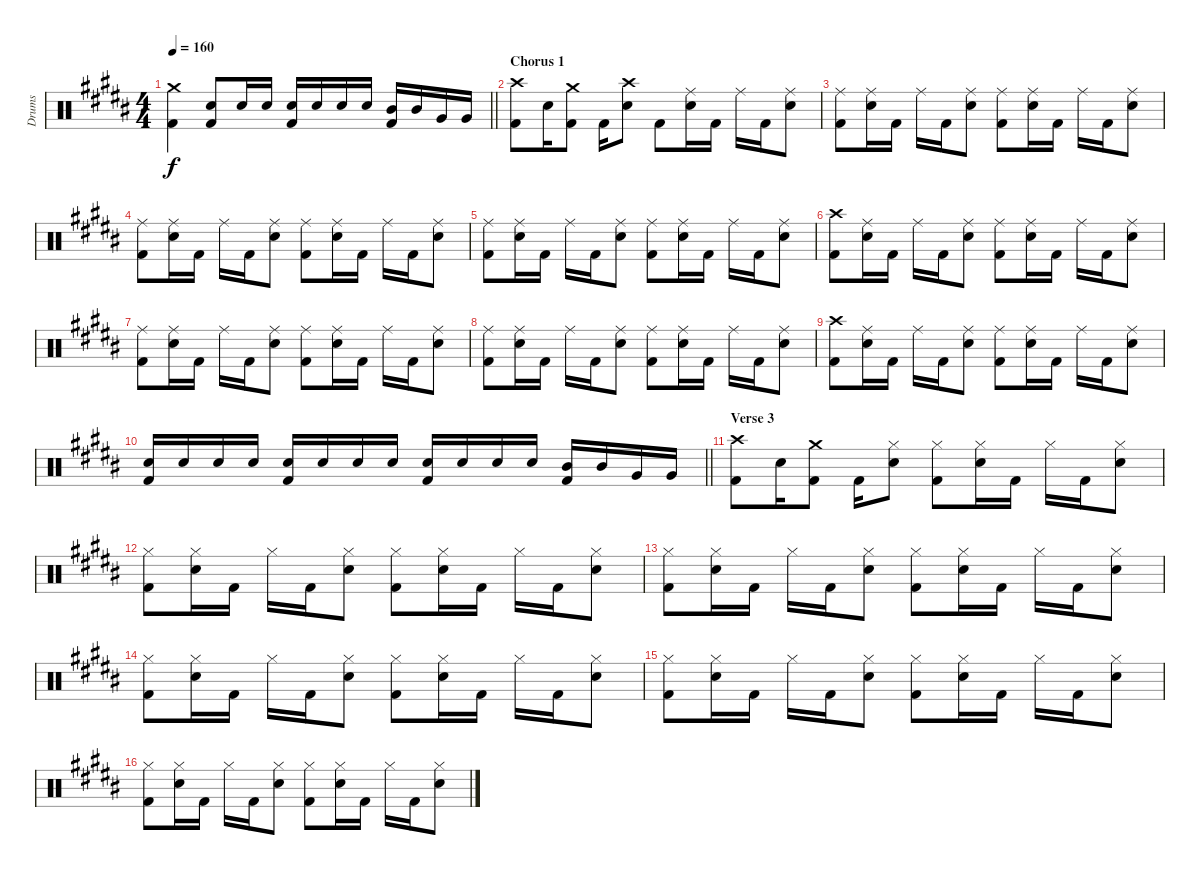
\track ("Drums" "Drums") {instrument percussion}
\staff {score}
\articulation defaults
\ts (4 4)
\tempo 160
\clef neutral
\barLineRight lightlight
\ks g#minor
("Crash medium (hit)" "Kick (hit) 2").4{dy f} ("Electric Snare (hit)" "Kick (hit) 2").8 "Electric Snare (hit)".16 "Electric Snare (hit)".16 ("Electric Snare (hit)" "Kick (hit) 2").16 "Electric Snare (hit)".16 "Electric Snare (hit)".16 "Electric Snare (hit)".16 ("Mid Tom (hit)" "Kick (hit) 2").16 "Mid Tom (hit)".16 "Very Low Tom (hit)".16 "Very Low Tom (hit)".16 |
\section ("" "Chorus 1")
("Crash high (hit)" "Kick (hit) 2").8 "Electric Snare (hit)".16 ("Crash medium (hit)" "Kick (hit) 2").8 "Kick (hit) 2".16 ("Crash high (hit)" "Electric Snare (hit)").8 "Kick (hit) 2".8 ("Ride (middle)" "Electric Snare (hit)").16 "Kick (hit) 2".16 "Ride (middle)".16 "Kick (hit) 2".16 ("Ride (middle)" "Electric Snare (hit)").8 |
("Ride (middle)" "Kick (hit) 2").8 ("Ride (middle)" "Electric Snare (hit)").16 "Kick (hit) 2".16 "Ride (middle)".16 "Kick (hit) 2".16 ("Ride (middle)" "Electric Snare (hit)").8 ("Ride (middle)" "Kick (hit) 2").8 ("Ride (middle)" "Electric Snare (hit)").16 "Kick (hit) 2".16 "Ride (middle)".16 "Kick (hit) 2".16 ("Ride (middle)" "Electric Snare (hit)").8 |
("Ride (middle)" "Kick (hit) 2").8 ("Ride (middle)" "Electric Snare (hit)").16 "Kick (hit) 2".16 "Ride (middle)".16 "Kick (hit) 2".16 ("Ride (middle)" "Electric Snare (hit)").8 ("Ride (middle)" "Kick (hit) 2").8 ("Ride (middle)" "Electric Snare (hit)").16 "Kick (hit) 2".16 "Ride (middle)".16 "Kick (hit) 2".16 ("Ride (middle)" "Electric Snare (hit)").8 |
("Ride (middle)" "Kick (hit) 2").8 ("Ride (middle)" "Electric Snare (hit)").16 "Kick (hit) 2".16 "Ride (middle)".16 "Kick (hit) 2".16 ("Ride (middle)" "Electric Snare (hit)").8 ("Ride (middle)" "Kick (hit) 2").8 ("Ride (middle)" "Electric Snare (hit)").16 "Kick (hit) 2".16 "Ride (middle)".16 "Kick (hit) 2".16 ("Ride (middle)" "Electric Snare (hit)").8 |
("Crash high (hit)" "Kick (hit) 2").8 ("Ride (middle)" "Electric Snare (hit)").16 "Kick (hit) 2".16 "Ride (middle)".16 "Kick (hit) 2".16 ("Ride (middle)" "Electric Snare (hit)").8 ("Ride (middle)" "Kick (hit) 2").8 ("Ride (middle)" "Electric Snare (hit)").16 "Kick (hit) 2".16 "Ride (middle)".16 "Kick (hit) 2".16 ("Ride (middle)" "Electric Snare (hit)").8 |
("Ride (middle)" "Kick (hit) 2").8 ("Ride (middle)" "Electric Snare (hit)").16 "Kick (hit) 2".16 "Ride (middle)".16 "Kick (hit) 2".16 ("Ride (middle)" "Electric Snare (hit)").8 ("Ride (middle)" "Kick (hit) 2").8 ("Ride (middle)" "Electric Snare (hit)").16 "Kick (hit) 2".16 "Ride (middle)".16 "Kick (hit) 2".16 ("Ride (middle)" "Electric Snare (hit)").8 |
("Ride (middle)" "Kick (hit) 2").8 ("Ride (middle)" "Electric Snare (hit)").16 "Kick (hit) 2".16 "Ride (middle)".16 "Kick (hit) 2".16 ("Ride (middle)" "Electric Snare (hit)").8 ("Ride (middle)" "Kick (hit) 2").8 ("Ride (middle)" "Electric Snare (hit)").16 "Kick (hit) 2".16 "Ride (middle)".16 "Kick (hit) 2".16 ("Ride (middle)" "Electric Snare (hit)").8 |
("Crash high (hit)" "Kick (hit) 2").8 ("Ride (middle)" "Electric Snare (hit)").16 "Kick (hit) 2".16 "Ride (middle)".16 "Kick (hit) 2".16 ("Ride (middle)" "Electric Snare (hit)").8 ("Ride (middle)" "Kick (hit) 2").8 ("Ride (middle)" "Electric Snare (hit)").16 "Kick (hit) 2".16 "Ride (middle)".16 "Kick (hit) 2".16 ("Ride (middle)" "Electric Snare (hit)").8 |
\barLineRight lightlight
("Electric Snare (hit)" "Kick (hit) 2").16 "Electric Snare (hit)".16 "Electric Snare (hit)".16 "Electric Snare (hit)".16 ("Electric Snare (hit)" "Kick (hit) 2").16 "Electric Snare (hit)".16 "Electric Snare (hit)".16 "Electric Snare (hit)".16 ("Electric Snare (hit)" "Kick (hit) 2").16 "Electric Snare (hit)".16 "Electric Snare (hit)".16 "Electric Snare (hit)".16 ("Mid Tom (hit)" "Kick (hit) 2").16 "Mid Tom (hit)".16 "Very Low Tom (hit)".16 "Very Low Tom (hit)".16 |
\section ("" "Verse 3")
("Crash high (hit)" "Kick (hit) 2").8 "Electric Snare (hit)".16 ("Crash medium (hit)" "Kick (hit) 2").8 "Kick (hit) 2".16 ("Hi-Hat (closed)" "Electric Snare (hit)").8 ("Hi-Hat (closed)" "Kick (hit) 2").8 ("Hi-Hat (closed)" "Electric Snare (hit)").16 "Kick (hit) 2".16 "Hi-Hat (closed)".16 "Kick (hit) 2".16 ("Hi-Hat (closed)" "Electric Snare (hit)").8 |
("Hi-Hat (closed)" "Kick (hit) 2").8 ("Hi-Hat (closed)" "Electric Snare (hit)").16 "Kick (hit) 2".16 "Hi-Hat (closed)".16 "Kick (hit) 2".16 ("Hi-Hat (closed)" "Electric Snare (hit)").8 ("Hi-Hat (closed)" "Kick (hit) 2").8 ("Hi-Hat (closed)" "Electric Snare (hit)").16 "Kick (hit) 2".16 "Hi-Hat (closed)".16 "Kick (hit) 2".16 ("Hi-Hat (closed)" "Electric Snare (hit)").8 |
("Hi-Hat (closed)" "Kick (hit) 2").8 ("Hi-Hat (closed)" "Electric Snare (hit)").16 "Kick (hit) 2".16 "Hi-Hat (closed)".16 "Kick (hit) 2".16 ("Hi-Hat (closed)" "Electric Snare (hit)").8 ("Hi-Hat (closed)" "Kick (hit) 2").8 ("Hi-Hat (closed)" "Electric Snare (hit)").16 "Kick (hit) 2".16 "Hi-Hat (closed)".16 "Kick (hit) 2".16 ("Hi-Hat (closed)" "Electric Snare (hit)").8 |
("Hi-Hat (closed)" "Kick (hit) 2").8 ("Hi-Hat (closed)" "Electric Snare (hit)").16 "Kick (hit) 2".16 "Hi-Hat (closed)".16 "Kick (hit) 2".16 ("Hi-Hat (closed)" "Electric Snare (hit)").8 ("Hi-Hat (closed)" "Kick (hit) 2").8 ("Hi-Hat (closed)" "Electric Snare (hit)").16 "Kick (hit) 2".16 "Hi-Hat (closed)".16 "Kick (hit) 2".16 ("Hi-Hat (closed)" "Electric Snare (hit)").8 |
("Hi-Hat (closed)" "Kick (hit) 2").8 ("Hi-Hat (closed)" "Electric Snare (hit)").16 "Kick (hit) 2".16 "Hi-Hat (closed)".16 "Kick (hit) 2".16 ("Hi-Hat (closed)" "Electric Snare (hit)").8 ("Hi-Hat (closed)" "Kick (hit) 2").8 ("Hi-Hat (closed)" "Electric Snare (hit)").16 "Kick (hit) 2".16 "Hi-Hat (closed)".16 "Kick (hit) 2".16 ("Hi-Hat (closed)" "Electric Snare (hit)").8 |
("Hi-Hat (closed)" "Kick (hit) 2").8 ("Hi-Hat (closed)" "Electric Snare (hit)").16 "Kick (hit) 2".16 "Hi-Hat (closed)".16 "Kick (hit) 2".16 ("Hi-Hat (closed)" "Electric Snare (hit)").8 ("Hi-Hat (closed)" "Kick (hit) 2").8 ("Hi-Hat (closed)" "Electric Snare (hit)").16 "Kick (hit) 2".16 "Hi-Hat (closed)".16 "Kick (hit) 2".16 ("Hi-Hat (closed)" "Electric Snare (hit)").8
